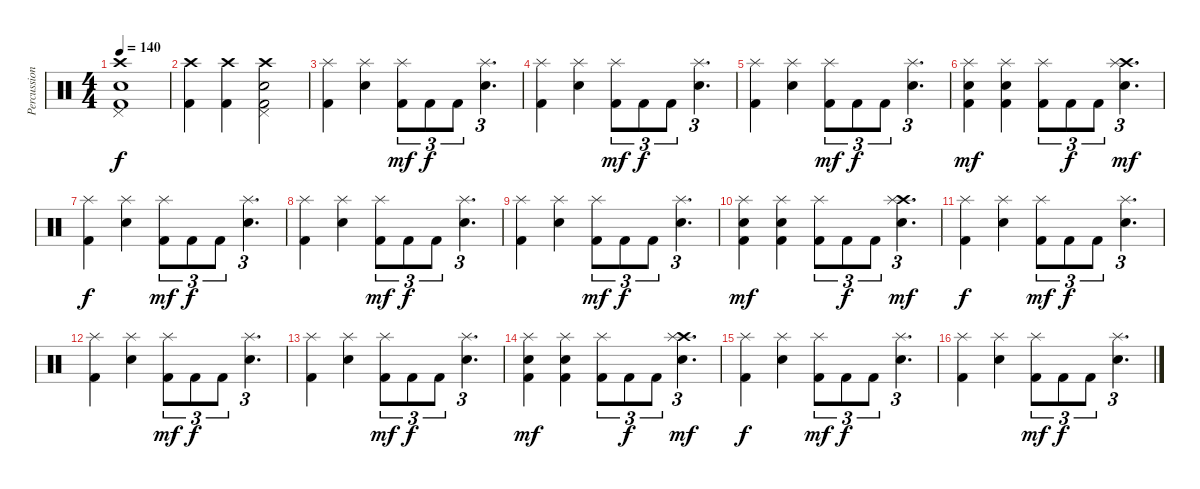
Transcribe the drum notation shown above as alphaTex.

\track ("Percussion" "Percussion") {instrument percussion}
\staff {score}
\articulation defaults
\ts (4 4)
\tempo 140
\clef neutral
\ks c
("Crash high (hit)" "Snare (hit) 2" "Pedal Hi-Hat (hit)" "Kick (hit) 2").1{dy f} |
("Crash high (hit)" "Kick (hit) 2").4 ("Crash high (hit)" "Kick (hit) 2").4 ("Crash high (hit)" "Snare (hit) 2" "Pedal Hi-Hat (hit)" "Kick (hit) 2").2 |
("Splash (hit)" "Kick (hit) 2").4 ("Splash (hit)" "Snare (hit) 2").4 ("Splash (hit)" "Kick (hit) 2").8{tu (3 2) dy mf} "Kick (hit) 2".8{tu (3 2) dy f} "Kick (hit) 2".8{tu (3 2)} ("Splash (hit)" "Snare (hit) 2").4{d tu (3 2)} |
("Splash (hit)" "Kick (hit) 2").4 ("Splash (hit)" "Snare (hit) 2").4 ("Splash (hit)" "Kick (hit) 2").8{tu (3 2) dy mf} "Kick (hit) 2".8{tu (3 2) dy f} "Kick (hit) 2".8{tu (3 2)} ("Splash (hit)" "Snare (hit) 2").4{d tu (3 2)} |
("Splash (hit)" "Kick (hit) 2").4 ("Splash (hit)" "Snare (hit) 2").4 ("Splash (hit)" "Kick (hit) 2").8{tu (3 2) dy mf} "Kick (hit) 2".8{tu (3 2) dy f} "Kick (hit) 2".8{tu (3 2)} ("Splash (hit)" "Snare (hit) 2").4{d tu (3 2)} |
("Splash (hit)" "Kick (hit) 2" "Snare (hit) 2").4{dy mf} ("Splash (hit)" "Kick (hit) 2" "Snare (hit) 2").4 ("Splash (hit)" "Kick (hit) 2").8{tu (3 2)} "Kick (hit) 2".8{tu (3 2) dy f} "Kick (hit) 2".8{tu (3 2)} ("Crash high (hit)" "Splash (hit)" "Snare (hit) 2").4{d tu (3 2) dy mf} |
("Splash (hit)" "Kick (hit) 2").4{dy f} ("Splash (hit)" "Snare (hit) 2").4 ("Splash (hit)" "Kick (hit) 2").8{tu (3 2) dy mf} "Kick (hit) 2".8{tu (3 2) dy f} "Kick (hit) 2".8{tu (3 2)} ("Splash (hit)" "Snare (hit) 2").4{d tu (3 2)} |
("Splash (hit)" "Kick (hit) 2").4 ("Splash (hit)" "Snare (hit) 2").4 ("Splash (hit)" "Kick (hit) 2").8{tu (3 2) dy mf} "Kick (hit) 2".8{tu (3 2) dy f} "Kick (hit) 2".8{tu (3 2)} ("Splash (hit)" "Snare (hit) 2").4{d tu (3 2)} |
("Splash (hit)" "Kick (hit) 2").4 ("Splash (hit)" "Snare (hit) 2").4 ("Splash (hit)" "Kick (hit) 2").8{tu (3 2) dy mf} "Kick (hit) 2".8{tu (3 2) dy f} "Kick (hit) 2".8{tu (3 2)} ("Splash (hit)" "Snare (hit) 2").4{d tu (3 2)} |
("Splash (hit)" "Kick (hit) 2" "Snare (hit) 2").4{dy mf} ("Splash (hit)" "Kick (hit) 2" "Snare (hit) 2").4 ("Splash (hit)" "Kick (hit) 2").8{tu (3 2)} "Kick (hit) 2".8{tu (3 2) dy f} "Kick (hit) 2".8{tu (3 2)} ("Crash high (hit)" "Splash (hit)" "Snare (hit) 2").4{d tu (3 2) dy mf} |
("Splash (hit)" "Kick (hit) 2").4{dy f} ("Splash (hit)" "Snare (hit) 2").4 ("Splash (hit)" "Kick (hit) 2").8{tu (3 2) dy mf} "Kick (hit) 2".8{tu (3 2) dy f} "Kick (hit) 2".8{tu (3 2)} ("Splash (hit)" "Snare (hit) 2").4{d tu (3 2)} |
("Splash (hit)" "Kick (hit) 2").4 ("Splash (hit)" "Snare (hit) 2").4 ("Splash (hit)" "Kick (hit) 2").8{tu (3 2) dy mf} "Kick (hit) 2".8{tu (3 2) dy f} "Kick (hit) 2".8{tu (3 2)} ("Splash (hit)" "Snare (hit) 2").4{d tu (3 2)} |
("Splash (hit)" "Kick (hit) 2").4 ("Splash (hit)" "Snare (hit) 2").4 ("Splash (hit)" "Kick (hit) 2").8{tu (3 2) dy mf} "Kick (hit) 2".8{tu (3 2) dy f} "Kick (hit) 2".8{tu (3 2)} ("Splash (hit)" "Snare (hit) 2").4{d tu (3 2)} |
("Splash (hit)" "Kick (hit) 2" "Snare (hit) 2").4{dy mf} ("Splash (hit)" "Kick (hit) 2" "Snare (hit) 2").4 ("Splash (hit)" "Kick (hit) 2").8{tu (3 2)} "Kick (hit) 2".8{tu (3 2) dy f} "Kick (hit) 2".8{tu (3 2)} ("Crash high (hit)" "Splash (hit)" "Snare (hit) 2").4{d tu (3 2) dy mf} |
("Splash (hit)" "Kick (hit) 2").4{dy f} ("Splash (hit)" "Snare (hit) 2").4 ("Splash (hit)" "Kick (hit) 2").8{tu (3 2) dy mf} "Kick (hit) 2".8{tu (3 2) dy f} "Kick (hit) 2".8{tu (3 2)} ("Splash (hit)" "Snare (hit) 2").4{d tu (3 2)} |
("Splash (hit)" "Kick (hit) 2").4 ("Splash (hit)" "Snare (hit) 2").4 ("Splash (hit)" "Kick (hit) 2").8{tu (3 2) dy mf} "Kick (hit) 2".8{tu (3 2) dy f} "Kick (hit) 2".8{tu (3 2)} ("Splash (hit)" "Snare (hit) 2").4{d tu (3 2)}
